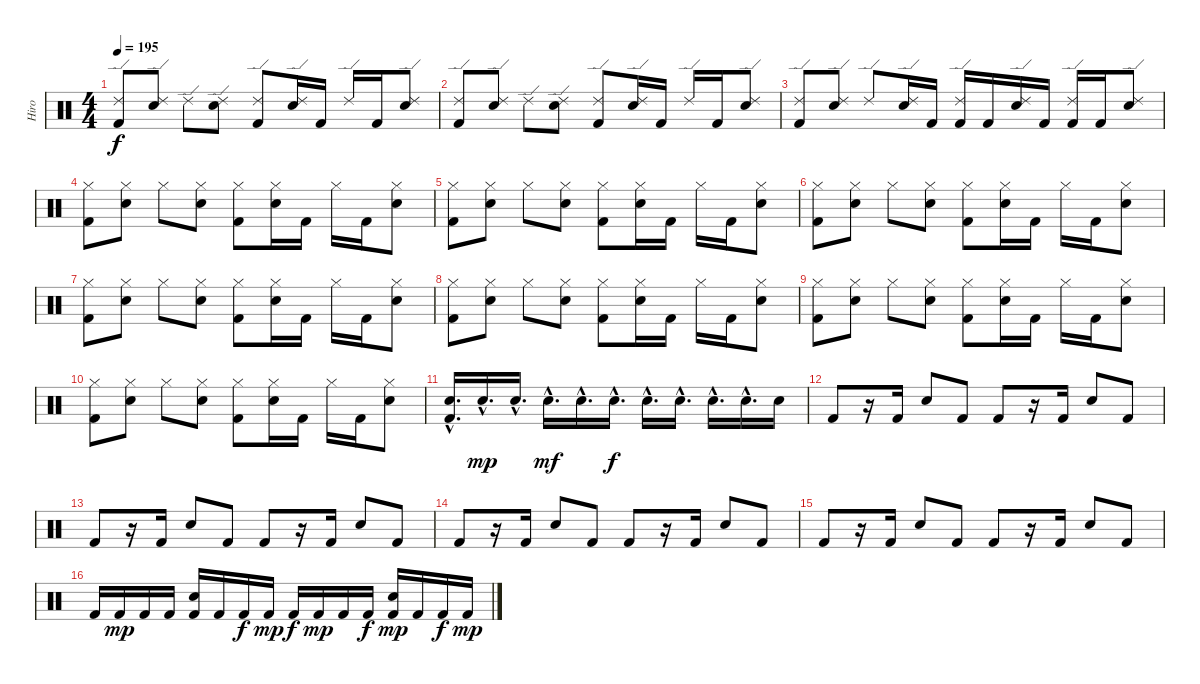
\track ("Hiro" "Hiro") {instrument percussion}
\staff {score}
\articulation defaults
\ts (4 4)
\tempo 195
\clef neutral
\ks c
("Kick (hit) 2" "Ride (edge) 2").8{dy f} ("Snare (hit) 2" "Ride (edge) 2").8 "Ride (edge) 2".8 ("Snare (hit) 2" "Ride (edge) 2").8 ("Kick (hit) 2" "Ride (edge) 2").8 ("Snare (hit) 2" "Ride (edge) 2").16 "Kick (hit) 2".16 "Ride (edge) 2".16 "Kick (hit) 2".16 ("Snare (hit) 2" "Ride (edge) 2").8 |
("Kick (hit) 2" "Ride (edge) 2").8 ("Snare (hit) 2" "Ride (edge) 2").8 "Ride (edge) 2".8 ("Snare (hit) 2" "Ride (edge) 2").8 ("Kick (hit) 2" "Ride (edge) 2").8 ("Snare (hit) 2" "Ride (edge) 2").16 "Kick (hit) 2".16 "Ride (edge) 2".16 "Kick (hit) 2".16 ("Snare (hit) 2" "Ride (edge) 2").8 |
("Kick (hit) 2" "Ride (edge) 2").8 ("Snare (hit) 2" "Ride (edge) 2").8 "Ride (edge) 2".8 ("Snare (hit) 2" "Ride (edge) 2").16 "Kick (hit) 2".16 ("Kick (hit) 2" "Ride (edge) 2").16 "Kick (hit) 2".16 ("Snare (hit) 2" "Ride (edge) 2").16 "Kick (hit) 2".16 ("Kick (hit) 2" "Ride (edge) 2").16 "Kick (hit) 2".16 ("Snare (hit) 2" "Ride (edge) 2").8 |
("Kick (hit) 2" "Hi-Hat (closed)").8 ("Snare (hit) 2" "Hi-Hat (closed)").8 "Hi-Hat (closed)".8 ("Snare (hit) 2" "Hi-Hat (closed)").8 ("Kick (hit) 2" "Hi-Hat (closed)").8 ("Snare (hit) 2" "Hi-Hat (closed)").16 "Kick (hit) 2".16 "Hi-Hat (closed)".16 "Kick (hit) 2".16 ("Snare (hit) 2" "Hi-Hat (closed)").8 |
("Kick (hit) 2" "Hi-Hat (closed)").8 ("Snare (hit) 2" "Hi-Hat (closed)").8 "Hi-Hat (closed)".8 ("Snare (hit) 2" "Hi-Hat (closed)").8 ("Kick (hit) 2" "Hi-Hat (closed)").8 ("Snare (hit) 2" "Hi-Hat (closed)").16 "Kick (hit) 2".16 "Hi-Hat (closed)".16 "Kick (hit) 2".16 ("Snare (hit) 2" "Hi-Hat (closed)").8 |
("Kick (hit) 2" "Hi-Hat (closed)").8 ("Snare (hit) 2" "Hi-Hat (closed)").8 "Hi-Hat (closed)".8 ("Snare (hit) 2" "Hi-Hat (closed)").8 ("Kick (hit) 2" "Hi-Hat (closed)").8 ("Snare (hit) 2" "Hi-Hat (closed)").16 "Kick (hit) 2".16 "Hi-Hat (closed)".16 "Kick (hit) 2".16 ("Snare (hit) 2" "Hi-Hat (closed)").8 |
("Kick (hit) 2" "Hi-Hat (closed)").8 ("Snare (hit) 2" "Hi-Hat (closed)").8 "Hi-Hat (closed)".8 ("Snare (hit) 2" "Hi-Hat (closed)").8 ("Kick (hit) 2" "Hi-Hat (closed)").8 ("Snare (hit) 2" "Hi-Hat (closed)").16 "Kick (hit) 2".16 "Hi-Hat (closed)".16 "Kick (hit) 2".16 ("Snare (hit) 2" "Hi-Hat (closed)").8 |
("Kick (hit) 2" "Hi-Hat (closed)").8 ("Snare (hit) 2" "Hi-Hat (closed)").8 "Hi-Hat (closed)".8 ("Snare (hit) 2" "Hi-Hat (closed)").8 ("Kick (hit) 2" "Hi-Hat (closed)").8 ("Snare (hit) 2" "Hi-Hat (closed)").16 "Kick (hit) 2".16 "Hi-Hat (closed)".16 "Kick (hit) 2".16 ("Snare (hit) 2" "Hi-Hat (closed)").8 |
("Kick (hit) 2" "Hi-Hat (closed)").8 ("Snare (hit) 2" "Hi-Hat (closed)").8 "Hi-Hat (closed)".8 ("Snare (hit) 2" "Hi-Hat (closed)").8 ("Kick (hit) 2" "Hi-Hat (closed)").8 ("Snare (hit) 2" "Hi-Hat (closed)").16 "Kick (hit) 2".16 "Hi-Hat (closed)".16 "Kick (hit) 2".16 ("Snare (hit) 2" "Hi-Hat (closed)").8 |
("Kick (hit) 2" "Hi-Hat (closed)").8 ("Snare (hit) 2" "Hi-Hat (closed)").8 "Hi-Hat (closed)".8 ("Snare (hit) 2" "Hi-Hat (closed)").8 ("Kick (hit) 2" "Hi-Hat (closed)").8 ("Snare (hit) 2" "Hi-Hat (closed)").16 "Kick (hit) 2".16 "Hi-Hat (closed)".16 "Kick (hit) 2".16 ("Snare (hit) 2" "Hi-Hat (closed)").8 |
("Electric Snare (hit)"{hac} "Kick (hit) 2"{hac}).16{d} "Electric Snare (hit)"{hac}.16{d dy mp} "Electric Snare (hit)"{hac}.16{d} "Electric Snare (hit)"{hac}.16{d dy mf} "Electric Snare (hit)"{hac}.16{d} "Electric Snare (hit)"{hac}.16{d dy f} "Electric Snare (hit)"{hac}.16{d} "Electric Snare (hit)"{hac}.16{d} "Electric Snare (hit)"{hac}.16{d} "Electric Snare (hit)"{hac}.16{d} "Electric Snare (hit)".16 |
"Kick (hit) 2".8 r.16 "Kick (hit) 2".16 "Snare (hit) 2".8 "Kick (hit) 2".8 "Kick (hit) 2".8 r.16 "Kick (hit) 2".16 "Snare (hit) 2".8 "Kick (hit) 2".8 |
"Kick (hit) 2".8 r.16 "Kick (hit) 2".16 "Snare (hit) 2".8 "Kick (hit) 2".8 "Kick (hit) 2".8 r.16 "Kick (hit) 2".16 "Snare (hit) 2".8 "Kick (hit) 2".8 |
"Kick (hit) 2".8 r.16 "Kick (hit) 2".16 "Snare (hit) 2".8 "Kick (hit) 2".8 "Kick (hit) 2".8 r.16 "Kick (hit) 2".16 "Snare (hit) 2".8 "Kick (hit) 2".8 |
"Kick (hit) 2".8 r.16 "Kick (hit) 2".16 "Snare (hit) 2".8 "Kick (hit) 2".8 "Kick (hit) 2".8 r.16 "Kick (hit) 2".16 "Snare (hit) 2".8 "Kick (hit) 2".8 |
"Kick (hit) 2".16 "Kick (hit) 2".16{dy mp} "Kick (hit) 2".16 "Kick (hit) 2".16 ("Snare (hit) 2" "Kick (hit) 2").16 "Kick (hit) 2".16 "Kick (hit) 2".16{dy f} "Kick (hit) 2".16{dy mp} "Kick (hit) 2".16{dy f} "Kick (hit) 2".16{dy mp} "Kick (hit) 2".16 "Kick (hit) 2".16{dy f} ("Snare (hit) 2" "Kick (hit) 2").16{dy mp} "Kick (hit) 2".16 "Kick (hit) 2".16{dy f} "Kick (hit) 2".16{dy mp}
